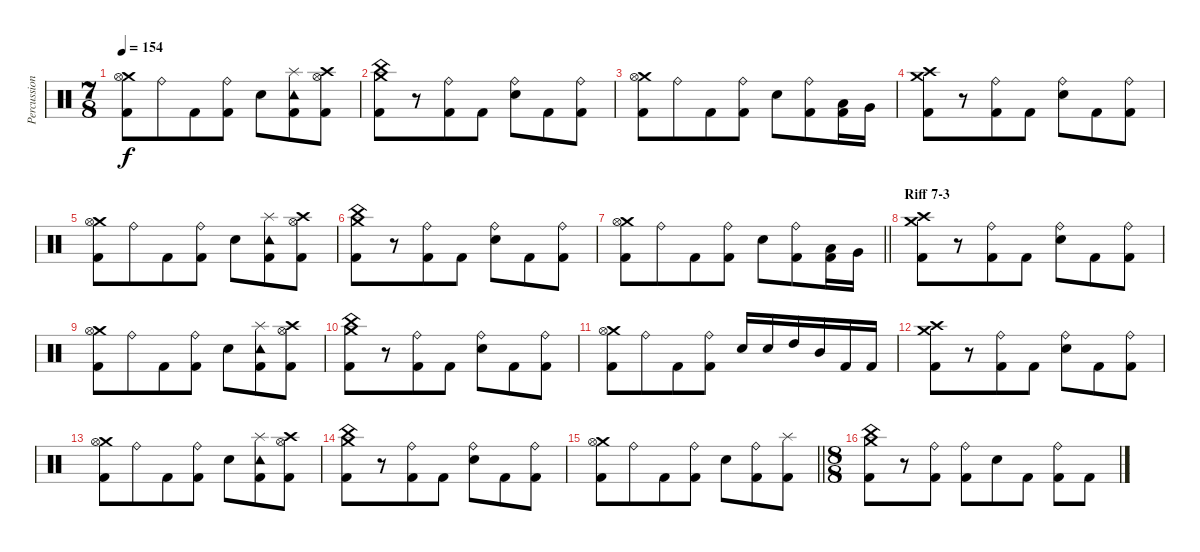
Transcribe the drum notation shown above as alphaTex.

\track ("Percussions" "Percussion") {instrument percussion}
\staff {score}
\articulation defaults
\ts (7 8)
\tempo 154
\clef neutral
\ks c
("Crash medium (hit)" "Hi-Hat (open)" "Kick (hit) 2").8{dy f} "Ride (bell)".8 "Kick (hit) 2".8 ("Ride (bell)" "Kick (hit) 2").8 "Electric Snare (hit)".8 ("Tambourine (hit)" "Splash (hit)" "Kick (hit) 2").8 ("Crash high (hit)" "Hi-Hat (open)" "Kick (hit) 2").8 |
("China (hit)" "Crash medium (hit)" "Kick (hit) 2").8 r.8 ("Ride (bell)" "Kick (hit) 2").8 "Kick (hit) 2".8 ("Ride (bell)" "Electric Snare (hit)").8 "Kick (hit) 2".8 ("Ride (bell)" "Kick (hit) 2").8 |
("Crash medium (hit)" "Hi-Hat (open)" "Kick (hit) 2").8 "Ride (bell)".8 "Kick (hit) 2".8 ("Ride (bell)" "Kick (hit) 2").8 "Electric Snare (hit)".8 ("Ride (bell)" "Kick (hit) 2").8 ("Low Tom (hit)" "Kick (hit) 2").16 "Very Low Tom (hit)".16 |
("Crash high (hit)" "Crash medium (hit)" "Kick (hit) 2").8 r.8 ("Ride (bell)" "Kick (hit) 2").8 "Kick (hit) 2".8 ("Ride (bell)" "Electric Snare (hit)").8 "Kick (hit) 2".8 ("Ride (bell)" "Kick (hit) 2").8 |
("Crash medium (hit)" "Hi-Hat (open)" "Kick (hit) 2").8 "Ride (bell)".8 "Kick (hit) 2".8 ("Ride (bell)" "Kick (hit) 2").8 "Electric Snare (hit)".8 ("Tambourine (hit)" "Splash (hit)" "Kick (hit) 2").8 ("Crash high (hit)" "Hi-Hat (open)" "Kick (hit) 2").8 |
("China (hit)" "Crash medium (hit)" "Kick (hit) 2").8 r.8 ("Ride (bell)" "Kick (hit) 2").8 "Kick (hit) 2".8 ("Ride (bell)" "Electric Snare (hit)").8 "Kick (hit) 2".8 ("Ride (bell)" "Kick (hit) 2").8 |
\barLineRight lightlight
("Crash medium (hit)" "Hi-Hat (open)" "Kick (hit) 2").8 "Ride (bell)".8 "Kick (hit) 2".8 ("Ride (bell)" "Kick (hit) 2").8 "Electric Snare (hit)".8 ("Ride (bell)" "Kick (hit) 2").8 ("Low Tom (hit)" "Kick (hit) 2").16 "Very Low Tom (hit)".16 |
\section ("" "Riff 7-3")
("Crash high (hit)" "Crash medium (hit)" "Kick (hit) 2").8 r.8 ("Ride (bell)" "Kick (hit) 2").8 "Kick (hit) 2".8 ("Ride (bell)" "Electric Snare (hit)").8 "Kick (hit) 2".8 ("Ride (bell)" "Kick (hit) 2").8 |
("Crash medium (hit)" "Hi-Hat (open)" "Kick (hit) 2").8 "Ride (bell)".8 "Kick (hit) 2".8 ("Ride (bell)" "Kick (hit) 2").8 "Electric Snare (hit)".8 ("Tambourine (hit)" "Splash (hit)" "Kick (hit) 2").8 ("Crash high (hit)" "Hi-Hat (open)" "Kick (hit) 2").8 |
("China (hit)" "Crash medium (hit)" "Kick (hit) 2").8 r.8 ("Ride (bell)" "Kick (hit) 2").8 "Kick (hit) 2".8 ("Ride (bell)" "Electric Snare (hit)").8 "Kick (hit) 2".8 ("Ride (bell)" "Kick (hit) 2").8 |
("Crash medium (hit)" "Hi-Hat (open)" "Kick (hit) 2").8 "Ride (bell)".8 "Kick (hit) 2".8 ("Ride (bell)" "Kick (hit) 2").8 "Electric Snare (hit)".16 "Electric Snare (hit)".16 "High Tom (hit)".16 "Mid Tom (hit)".16 "Kick (hit) 2".16 "Kick (hit) 2".16 |
("Crash high (hit)" "Crash medium (hit)" "Kick (hit) 2").8 r.8 ("Ride (bell)" "Kick (hit) 2").8 "Kick (hit) 2".8 ("Ride (bell)" "Electric Snare (hit)").8 "Kick (hit) 2".8 ("Ride (bell)" "Kick (hit) 2").8 |
("Crash medium (hit)" "Hi-Hat (open)" "Kick (hit) 2").8 "Ride (bell)".8 "Kick (hit) 2".8 ("Ride (bell)" "Kick (hit) 2").8 "Electric Snare (hit)".8 ("Tambourine (hit)" "Splash (hit)" "Kick (hit) 2").8 ("Crash high (hit)" "Hi-Hat (open)" "Kick (hit) 2").8 |
("China (hit)" "Crash medium (hit)" "Kick (hit) 2").8 r.8 ("Ride (bell)" "Kick (hit) 2").8 "Kick (hit) 2".8 ("Ride (bell)" "Electric Snare (hit)").8 "Kick (hit) 2".8 ("Ride (bell)" "Kick (hit) 2").8 |
\barLineRight lightlight
("Crash medium (hit)" "Hi-Hat (open)" "Kick (hit) 2").8 "Ride (bell)".8 "Kick (hit) 2".8 ("Ride (bell)" "Kick (hit) 2").8 "Electric Snare (hit)".8 ("Ride (bell)" "Kick (hit) 2").8 ("Splash (hit)" "Kick (hit) 2").8 |
\ts (8 8)
\section ("" "")
("China (hit)" "Crash medium (hit)" "Kick (hit) 2").8 r.8 ("Ride (bell)" "Kick (hit) 2").8 ("Ride (bell)" "Kick (hit) 2").8 "Electric Snare (hit)".8 "Kick (hit) 2".8 ("Ride (bell)" "Kick (hit) 2").8 "Kick (hit) 2".8
